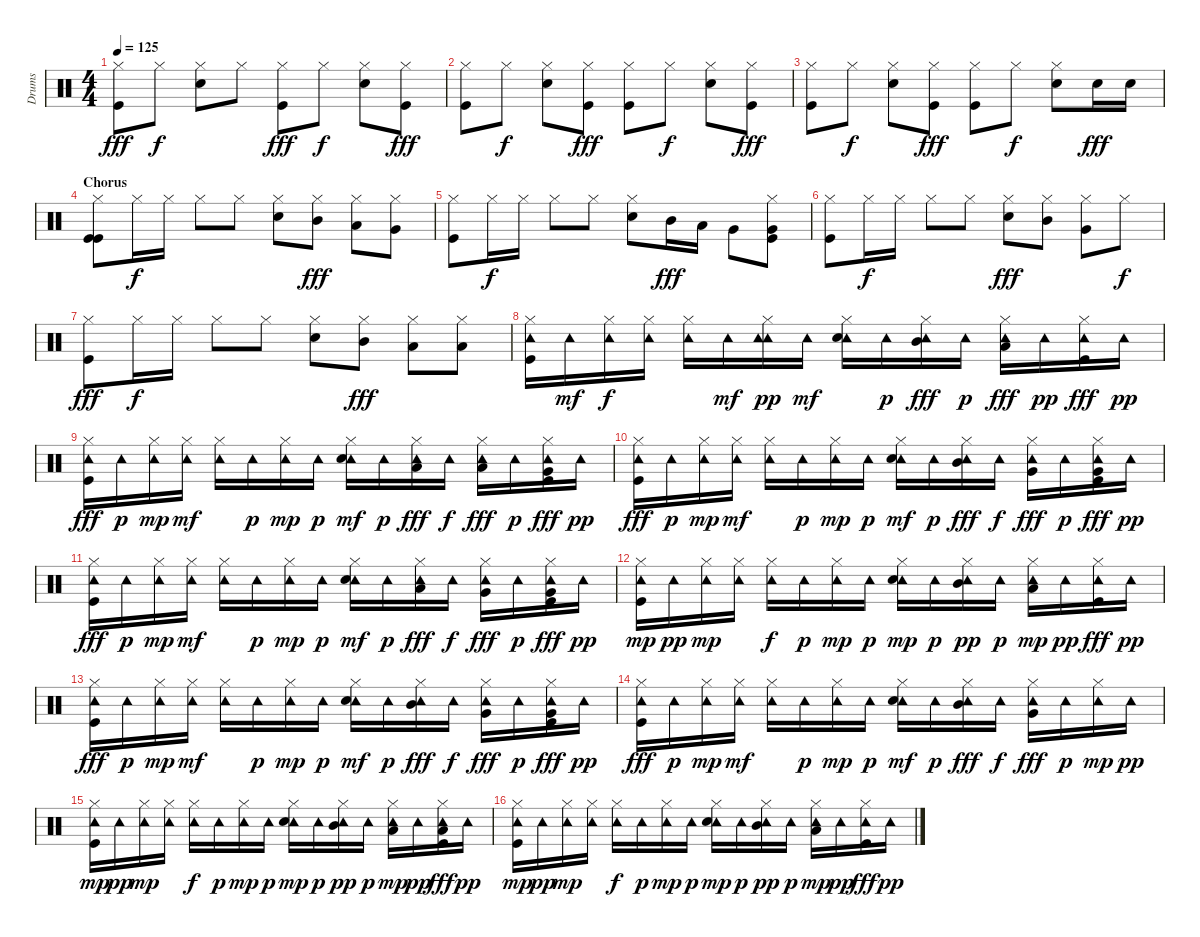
\track ("Drums" "Drums") {instrument percussion}
\staff {score}
\articulation defaults
\ts (4 4)
\tempo 125
\clef neutral
\ks c
("Hi-Hat (closed)" "Kick (hit)").8{dy fff} "Hi-Hat (closed)".8{dy f} ("Hi-Hat (closed)" "Snare (hit) 2").8 "Hi-Hat (closed)".8 ("Hi-Hat (closed)" "Kick (hit)").8{dy fff} "Hi-Hat (closed)".8{dy f} ("Hi-Hat (closed)" "Snare (hit) 2").8 ("Hi-Hat (closed)" "Kick (hit)").8{dy fff} |
("Hi-Hat (closed)" "Kick (hit)").8 "Hi-Hat (closed)".8{dy f} ("Hi-Hat (closed)" "Snare (hit) 2").8 ("Hi-Hat (closed)" "Kick (hit)").8{dy fff} ("Hi-Hat (closed)" "Kick (hit)").8 "Hi-Hat (closed)".8{dy f} ("Hi-Hat (closed)" "Snare (hit) 2").8 ("Hi-Hat (closed)" "Kick (hit)").8{dy fff} |
("Hi-Hat (closed)" "Kick (hit)").8 "Hi-Hat (closed)".8{dy f} ("Hi-Hat (closed)" "Snare (hit) 2").8 ("Hi-Hat (closed)" "Kick (hit)").8{dy fff} ("Hi-Hat (closed)" "Kick (hit)").8 "Hi-Hat (closed)".8{dy f} ("Hi-Hat (closed)" "Snare (hit) 2").8 "Snare (hit) 2".16{dy fff} "Snare (hit) 2".16 |
\section ("" "Chorus")
("Hi-Hat (closed)" "Kick (hit)" "Kick (hit)").8 "Hi-Hat (closed)".16{dy f} "Hi-Hat (closed)".16 "Hi-Hat (closed)".8 "Hi-Hat (closed)".8 ("Hi-Hat (closed)" "Snare (hit) 2").8 ("Hi-Hat (closed)" "Mid Tom (hit)").8{dy fff} ("Hi-Hat (closed)" "Low Tom (hit)").8 ("Hi-Hat (closed)" "Very Low Tom (hit)").8 |
("Hi-Hat (closed)" "Kick (hit)").8 "Hi-Hat (closed)".16{dy f} "Hi-Hat (closed)".16 "Hi-Hat (closed)".8 "Hi-Hat (closed)".8 ("Hi-Hat (closed)" "Snare (hit) 2").8 "Mid Tom (hit)".16{dy fff} "Low Tom (hit)".16 "Very Low Tom (hit)".8 ("Hi-Hat (closed)" "Very Low Tom (hit)" "Kick (hit)").8 |
("Hi-Hat (closed)" "Kick (hit)").8 "Hi-Hat (closed)".16{dy f} "Hi-Hat (closed)".16 "Hi-Hat (closed)".8 "Hi-Hat (closed)".8 ("Hi-Hat (closed)" "Snare (hit) 2").8{dy fff} ("Hi-Hat (closed)" "Mid Tom (hit)").8 ("Hi-Hat (closed)" "Very Low Tom (hit)").8 "Hi-Hat (closed)".8{dy f} |
("Hi-Hat (closed)" "Kick (hit)").8{dy fff} "Hi-Hat (closed)".16{dy f} "Hi-Hat (closed)".16 "Hi-Hat (closed)".8 "Hi-Hat (closed)".8 ("Hi-Hat (closed)" "Snare (hit) 2").8 ("Hi-Hat (closed)" "Mid Tom (hit)").8{dy fff} ("Hi-Hat (closed)" "Low Tom (hit)").8 ("Hi-Hat (closed)" "Low Tom (hit)").8 |
("Tambourine (hit)" "Hi-Hat (closed)" "Kick (hit)").16 "Tambourine (hit)".16{dy mf} ("Tambourine (hit)" "Hi-Hat (closed)").16{dy f} ("Tambourine (hit)" "Hi-Hat (closed)").16 ("Tambourine (hit)" "Hi-Hat (closed)").16 "Tambourine (hit)".16{dy mf} ("Tambourine (hit)" "Hi-Hat (closed)" "Tambourine (hit)").16{dy pp} "Tambourine (hit)".16{dy mf} ("Tambourine (hit)" "Hi-Hat (closed)" "Snare (hit) 2").16 "Tambourine (hit)".16{dy p} ("Tambourine (hit)" "Hi-Hat (closed)" "Mid Tom (hit)").16{dy fff} "Tambourine (hit)".16{dy p} ("Tambourine (hit)" "Hi-Hat (closed)" "Low Tom (hit)").16{dy fff} "Tambourine (hit)".16{dy pp} ("Tambourine (hit)" "Hi-Hat (closed)" "Kick (hit)").16{dy fff} "Tambourine (hit)".16{dy pp} |
("Tambourine (hit)" "Hi-Hat (closed)" "Kick (hit)").16{dy fff} "Tambourine (hit)".16{dy p} ("Tambourine (hit)" "Hi-Hat (closed)").16{dy mp} ("Tambourine (hit)" "Hi-Hat (closed)").16{dy mf} ("Tambourine (hit)" "Hi-Hat (closed)").16 "Tambourine (hit)".16{dy p} ("Tambourine (hit)" "Hi-Hat (closed)").16{dy mp} "Tambourine (hit)".16{dy p} ("Tambourine (hit)" "Hi-Hat (closed)" "Snare (hit) 2").16{dy mf} "Tambourine (hit)".16{dy p} ("Tambourine (hit)" "Hi-Hat (closed)" "Low Tom (hit)").16{dy fff} "Tambourine (hit)".16{dy f} ("Tambourine (hit)" "Hi-Hat (closed)" "Low Tom (hit)").16{dy fff} "Tambourine (hit)".16{dy p} ("Tambourine (hit)" "Hi-Hat (closed)" "Very Low Tom (hit)" "Kick (hit)").16{dy fff} "Tambourine (hit)".16{dy pp} |
("Tambourine (hit)" "Hi-Hat (closed)" "Kick (hit)").16{dy fff} "Tambourine (hit)".16{dy p} ("Tambourine (hit)" "Hi-Hat (closed)").16{dy mp} ("Tambourine (hit)" "Hi-Hat (closed)").16{dy mf} ("Tambourine (hit)" "Hi-Hat (closed)").16 "Tambourine (hit)".16{dy p} ("Tambourine (hit)" "Hi-Hat (closed)").16{dy mp} "Tambourine (hit)".16{dy p} ("Tambourine (hit)" "Hi-Hat (closed)" "Snare (hit) 2").16{dy mf} "Tambourine (hit)".16{dy p} ("Tambourine (hit)" "Hi-Hat (closed)" "Mid Tom (hit)").16{dy fff} "Tambourine (hit)".16{dy f} ("Tambourine (hit)" "Hi-Hat (closed)" "Very Low Tom (hit)").16{dy fff} "Tambourine (hit)".16{dy p} ("Tambourine (hit)" "Hi-Hat (closed)" "Very Low Tom (hit)" "Kick (hit)").16{dy fff} "Tambourine (hit)".16{dy pp} |
("Tambourine (hit)" "Hi-Hat (closed)" "Kick (hit)").16{dy fff} "Tambourine (hit)".16{dy p} ("Tambourine (hit)" "Hi-Hat (closed)").16{dy mp} ("Tambourine (hit)" "Hi-Hat (closed)").16{dy mf} ("Tambourine (hit)" "Hi-Hat (closed)").16 "Tambourine (hit)".16{dy p} ("Tambourine (hit)" "Hi-Hat (closed)").16{dy mp} "Tambourine (hit)".16{dy p} ("Tambourine (hit)" "Hi-Hat (closed)" "Snare (hit) 2").16{dy mf} "Tambourine (hit)".16{dy p} ("Tambourine (hit)" "Hi-Hat (closed)" "Low Tom (hit)").16{dy fff} "Tambourine (hit)".16{dy f} ("Tambourine (hit)" "Hi-Hat (closed)" "Very Low Tom (hit)").16{dy fff} "Tambourine (hit)".16{dy p} ("Tambourine (hit)" "Hi-Hat (closed)" "Very Low Tom (hit)" "Kick (hit)").16{dy fff} "Tambourine (hit)".16{dy pp} |
("Tambourine (hit)" "Hi-Hat (closed)" "Kick (hit)").16{dy mp} "Tambourine (hit)".16{dy pp} ("Tambourine (hit)" "Hi-Hat (closed)").16{dy mp} ("Tambourine (hit)" "Hi-Hat (closed)").16 ("Tambourine (hit)" "Hi-Hat (closed)").16{dy f} "Tambourine (hit)".16{dy p} ("Tambourine (hit)" "Hi-Hat (closed)").16{dy mp} "Tambourine (hit)".16{dy p} ("Tambourine (hit)" "Hi-Hat (closed)" "Snare (hit) 2").16{dy mp} "Tambourine (hit)".16{dy p} ("Tambourine (hit)" "Hi-Hat (closed)" "Mid Tom (hit)").16{dy pp} "Tambourine (hit)".16{dy p} ("Tambourine (hit)" "Hi-Hat (closed)" "Low Tom (hit)").16{dy mp} "Tambourine (hit)".16{dy pp} ("Tambourine (hit)" "Hi-Hat (closed)" "Kick (hit)").16{dy fff} "Tambourine (hit)".16{dy pp} |
("Tambourine (hit)" "Hi-Hat (closed)" "Kick (hit)").16{dy fff} "Tambourine (hit)".16{dy p} ("Tambourine (hit)" "Hi-Hat (closed)").16{dy mp} ("Tambourine (hit)" "Hi-Hat (closed)").16{dy mf} ("Tambourine (hit)" "Hi-Hat (closed)").16 "Tambourine (hit)".16{dy p} ("Tambourine (hit)" "Hi-Hat (closed)").16{dy mp} "Tambourine (hit)".16{dy p} ("Tambourine (hit)" "Hi-Hat (closed)" "Snare (hit) 2").16{dy mf} "Tambourine (hit)".16{dy p} ("Tambourine (hit)" "Hi-Hat (closed)" "Mid Tom (hit)").16{dy fff} "Tambourine (hit)".16{dy f} ("Tambourine (hit)" "Hi-Hat (closed)" "Very Low Tom (hit)").16{dy fff} "Tambourine (hit)".16{dy p} ("Tambourine (hit)" "Hi-Hat (closed)" "Very Low Tom (hit)" "Kick (hit)").16{dy fff} "Tambourine (hit)".16{dy pp} |
("Tambourine (hit)" "Hi-Hat (closed)" "Kick (hit)").16{dy fff} "Tambourine (hit)".16{dy p} ("Tambourine (hit)" "Hi-Hat (closed)").16{dy mp} ("Tambourine (hit)" "Hi-Hat (closed)").16{dy mf} ("Tambourine (hit)" "Hi-Hat (closed)").16 "Tambourine (hit)".16{dy p} ("Tambourine (hit)" "Hi-Hat (closed)").16{dy mp} "Tambourine (hit)".16{dy p} ("Tambourine (hit)" "Hi-Hat (closed)" "Snare (hit) 2").16{dy mf} "Tambourine (hit)".16{dy p} ("Tambourine (hit)" "Hi-Hat (closed)" "Mid Tom (hit)").16{dy fff} "Tambourine (hit)".16{dy f} ("Tambourine (hit)" "Hi-Hat (closed)" "Very Low Tom (hit)").16{dy fff} "Tambourine (hit)".16{dy p} ("Tambourine (hit)" "Hi-Hat (closed)").16{dy mp} "Tambourine (hit)".16{dy pp} |
("Tambourine (hit)" "Hi-Hat (closed)" "Kick (hit)").16{dy mp} "Tambourine (hit)".16{dy pp} ("Tambourine (hit)" "Hi-Hat (closed)").16{dy mp} ("Tambourine (hit)" "Hi-Hat (closed)").16 ("Tambourine (hit)" "Hi-Hat (closed)").16{dy f} "Tambourine (hit)".16{dy p} ("Tambourine (hit)" "Hi-Hat (closed)").16{dy mp} "Tambourine (hit)".16{dy p} ("Tambourine (hit)" "Hi-Hat (closed)" "Snare (hit) 2").16{dy mp} "Tambourine (hit)".16{dy p} ("Tambourine (hit)" "Hi-Hat (closed)" "Mid Tom (hit)").16{dy pp} "Tambourine (hit)".16{dy p} ("Tambourine (hit)" "Hi-Hat (closed)" "Low Tom (hit)").16{dy mp} "Tambourine (hit)".16{dy pp} ("Tambourine (hit)" "Hi-Hat (closed)" "Low Tom (hit)" "Kick (hit)").16{dy fff} "Tambourine (hit)".16{dy pp} |
("Tambourine (hit)" "Hi-Hat (closed)" "Kick (hit)").16{dy mp} "Tambourine (hit)".16{dy pp} ("Tambourine (hit)" "Hi-Hat (closed)").16{dy mp} ("Tambourine (hit)" "Hi-Hat (closed)").16 ("Tambourine (hit)" "Hi-Hat (closed)").16{dy f} "Tambourine (hit)".16{dy p} ("Tambourine (hit)" "Hi-Hat (closed)").16{dy mp} "Tambourine (hit)".16{dy p} ("Tambourine (hit)" "Hi-Hat (closed)" "Snare (hit) 2").16{dy mp} "Tambourine (hit)".16{dy p} ("Tambourine (hit)" "Hi-Hat (closed)" "Mid Tom (hit)").16{dy pp} "Tambourine (hit)".16{dy p} ("Tambourine (hit)" "Hi-Hat (closed)" "Low Tom (hit)").16{dy mp} "Tambourine (hit)".16{dy pp} ("Tambourine (hit)" "Hi-Hat (closed)" "Kick (hit)").16{dy fff} "Tambourine (hit)".16{dy pp}
